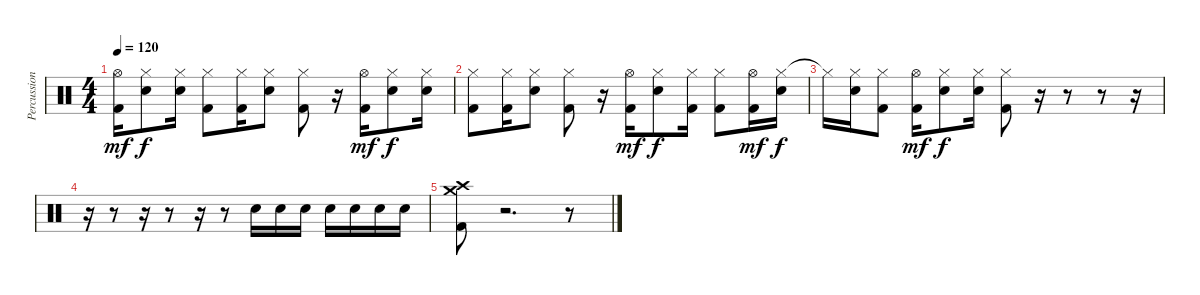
\track ("Percussions" "Percussion") {instrument percussion}
\staff {score}
\articulation defaults
\ts (4 4)
\tempo 120
\clef neutral
\ks c
("Hi-Hat (open)" "Kick (hit) 2").16{dy mf} ("Hi-Hat (closed)" "Electric Snare (hit)").8{dy f} ("Hi-Hat (closed)" "Electric Snare (hit)").16 ("Hi-Hat (closed)" "Kick (hit) 2").8 ("Hi-Hat (closed)" "Kick (hit) 2").16 ("Hi-Hat (closed)" "Electric Snare (hit)").8 ("Hi-Hat (closed)" "Kick (hit) 2").8 r.16 ("Hi-Hat (open)" "Kick (hit) 2").16{dy mf} ("Hi-Hat (closed)" "Electric Snare (hit)").8{dy f} ("Hi-Hat (closed)" "Electric Snare (hit)").16 |
("Hi-Hat (closed)" "Kick (hit) 2").8 ("Hi-Hat (closed)" "Kick (hit) 2").16 ("Hi-Hat (closed)" "Electric Snare (hit)").8 ("Hi-Hat (closed)" "Kick (hit) 2").8 r.16 ("Hi-Hat (open)" "Kick (hit) 2").16{dy mf} ("Hi-Hat (closed)" "Electric Snare (hit)").8{dy f} ("Hi-Hat (closed)" "Kick (hit) 2").16 ("Hi-Hat (closed)" "Kick (hit) 2").8 ("Hi-Hat (open)" "Kick (hit) 2").16{dy mf} ("Hi-Hat (closed)" "Electric Snare (hit)").16{dy f} |
"Hi-Hat (closed)"{t}.16 ("Hi-Hat (closed)" "Electric Snare (hit)").16 ("Hi-Hat (closed)" "Kick (hit) 2").8 ("Hi-Hat (open)" "Kick (hit) 2").16{dy mf} ("Hi-Hat (closed)" "Electric Snare (hit)").8{dy f} ("Hi-Hat (closed)" "Electric Snare (hit)").16 ("Hi-Hat (closed)" "Kick (hit) 2").8 r.16 r.8 r.8 r.16 |
r.16 r.8 r.16 r.8 r.16 r.8 "Electric Snare (hit)".16 "Electric Snare (hit)".16 "Electric Snare (hit)".16 "Electric Snare (hit)".16 "Electric Snare (hit)".16 "Electric Snare (hit)".16 "Electric Snare (hit)".16 |
("Crash high (hit)" "Crash medium (hit)" "Kick (hit) 2").8 r.2{d} r.8
